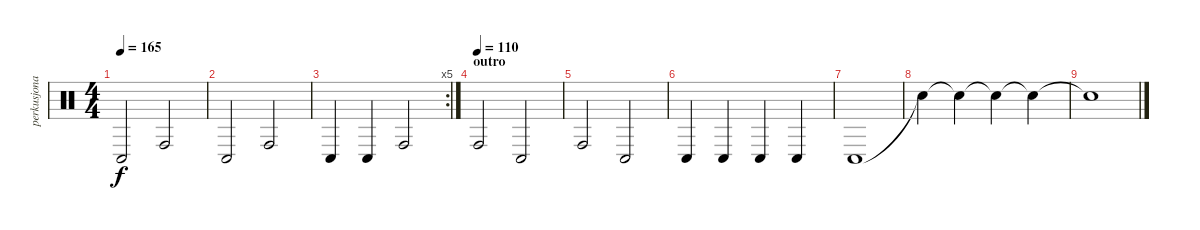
\track ("perkusjonalia" "perkusjona") {instrument percussion}
\staff {score}
\articulation defaults
\ts (4 4)
\tempo 165
\clef neutral
\ks c "Conga low (hit)".2{dy f} "Conga high (hit)".2
|
"Conga low (hit)".2 "Conga high (hit)".2 |
\rc 5 "Conga low (hit)".4 "Conga low (hit)".4 "Conga high (hit)".2
|
\section ("" "outro")
\tempo (110)
"Conga high (hit)".2 "Conga low (hit)".2 |
"Conga high (hit)".2 "Conga low (hit)".2 |
"Conga low (hit)".4 "Conga low (hit)".4 "Conga low (hit)".4 "Conga low (hit)".4 |
"Conga low (hit)".1 |
"Snare (hit)"{t}.4 "Snare (hit)"{t}.4 "Snare (hit)"{t}.4 "Snare (hit)"{t}.4 |
"Snare (hit)"{t}.1
